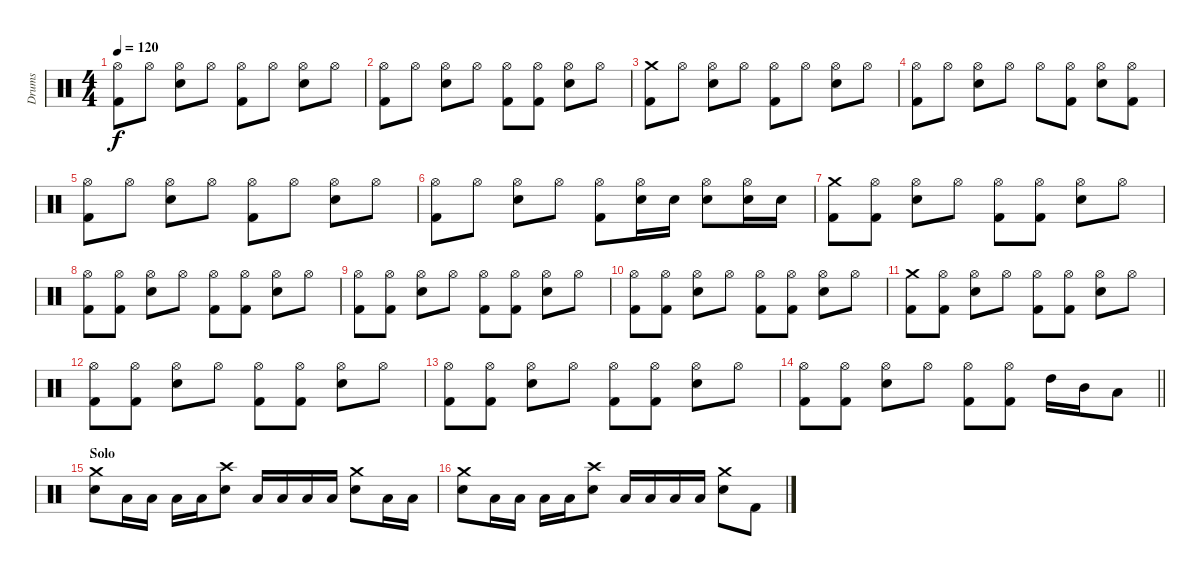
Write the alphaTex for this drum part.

\track ("Drums" "Drums") {instrument percussion}
\staff {score}
\articulation defaults
\ts (4 4)
\tempo 120
\clef neutral
\ks c
("Hi-Hat (open)" "Kick (hit) 2").8{dy f} "Hi-Hat (open)".8 ("Hi-Hat (open)" "Electric Snare (hit)").8 "Hi-Hat (open)".8 ("Hi-Hat (open)" "Kick (hit) 2").8 "Hi-Hat (open)".8 ("Hi-Hat (open)" "Electric Snare (hit)").8 "Hi-Hat (open)".8 |
("Hi-Hat (open)" "Kick (hit) 2").8 "Hi-Hat (open)".8 ("Hi-Hat (open)" "Electric Snare (hit)").8 "Hi-Hat (open)".8 ("Hi-Hat (open)" "Kick (hit) 2").8 ("Hi-Hat (open)" "Kick (hit) 2").8 ("Hi-Hat (open)" "Electric Snare (hit)").8 "Hi-Hat (open)".8 |
("Crash medium (hit)" "Kick (hit) 2").8 "Hi-Hat (open)".8 ("Hi-Hat (open)" "Electric Snare (hit)").8 "Hi-Hat (open)".8 ("Hi-Hat (open)" "Kick (hit) 2").8 "Hi-Hat (open)".8 ("Hi-Hat (open)" "Electric Snare (hit)").8 "Hi-Hat (open)".8 |
("Hi-Hat (open)" "Kick (hit) 2").8 "Hi-Hat (open)".8 ("Hi-Hat (open)" "Electric Snare (hit)").8 "Hi-Hat (open)".8 "Hi-Hat (open)".8 ("Hi-Hat (open)" "Kick (hit) 2").8 ("Hi-Hat (open)" "Electric Snare (hit)").8 ("Hi-Hat (open)" "Kick (hit) 2").8 |
("Hi-Hat (open)" "Kick (hit) 2").8 "Hi-Hat (open)".8 ("Hi-Hat (open)" "Electric Snare (hit)").8 "Hi-Hat (open)".8 ("Hi-Hat (open)" "Kick (hit) 2").8 "Hi-Hat (open)".8 ("Hi-Hat (open)" "Electric Snare (hit)").8 "Hi-Hat (open)".8 |
("Hi-Hat (open)" "Kick (hit) 2").8 "Hi-Hat (open)".8 ("Hi-Hat (open)" "Electric Snare (hit)").8 "Hi-Hat (open)".8 ("Hi-Hat (open)" "Kick (hit) 2").8 ("Hi-Hat (open)" "Electric Snare (hit)").16 "Electric Snare (hit)".16 ("Hi-Hat (open)" "Electric Snare (hit)").8 ("Hi-Hat (open)" "Electric Snare (hit)").16 "Electric Snare (hit)".16 |
("Crash medium (hit)" "Kick (hit) 2").8 ("Hi-Hat (open)" "Kick (hit) 2").8 ("Hi-Hat (open)" "Electric Snare (hit)").8 "Hi-Hat (open)".8 ("Hi-Hat (open)" "Kick (hit) 2").8 ("Hi-Hat (open)" "Kick (hit) 2").8 ("Hi-Hat (open)" "Electric Snare (hit)").8 "Hi-Hat (open)".8 |
("Hi-Hat (open)" "Kick (hit) 2").8 ("Hi-Hat (open)" "Kick (hit) 2").8 ("Hi-Hat (open)" "Electric Snare (hit)").8 "Hi-Hat (open)".8 ("Hi-Hat (open)" "Kick (hit) 2").8 ("Hi-Hat (open)" "Kick (hit) 2").8 ("Hi-Hat (open)" "Electric Snare (hit)").8 "Hi-Hat (open)".8 |
("Hi-Hat (open)" "Kick (hit) 2").8 ("Hi-Hat (open)" "Kick (hit) 2").8 ("Hi-Hat (open)" "Electric Snare (hit)").8 "Hi-Hat (open)".8 ("Hi-Hat (open)" "Kick (hit) 2").8 ("Hi-Hat (open)" "Kick (hit) 2").8 ("Hi-Hat (open)" "Electric Snare (hit)").8 "Hi-Hat (open)".8 |
("Hi-Hat (open)" "Kick (hit) 2").8 ("Hi-Hat (open)" "Kick (hit) 2").8 ("Hi-Hat (open)" "Electric Snare (hit)").8 "Hi-Hat (open)".8 ("Hi-Hat (open)" "Kick (hit) 2").8 ("Hi-Hat (open)" "Kick (hit) 2").8 ("Hi-Hat (open)" "Electric Snare (hit)").8 "Hi-Hat (open)".8 |
("Crash medium (hit)" "Kick (hit) 2").8 ("Hi-Hat (open)" "Kick (hit) 2").8 ("Hi-Hat (open)" "Electric Snare (hit)").8 "Hi-Hat (open)".8 ("Hi-Hat (open)" "Kick (hit) 2").8 ("Hi-Hat (open)" "Kick (hit) 2").8 ("Hi-Hat (open)" "Electric Snare (hit)").8 "Hi-Hat (open)".8 |
("Hi-Hat (open)" "Kick (hit) 2").8 ("Hi-Hat (open)" "Kick (hit) 2").8 ("Hi-Hat (open)" "Electric Snare (hit)").8 "Hi-Hat (open)".8 ("Hi-Hat (open)" "Kick (hit) 2").8 ("Hi-Hat (open)" "Kick (hit) 2").8 ("Hi-Hat (open)" "Electric Snare (hit)").8 "Hi-Hat (open)".8 |
("Hi-Hat (open)" "Kick (hit) 2").8 ("Hi-Hat (open)" "Kick (hit) 2").8 ("Hi-Hat (open)" "Electric Snare (hit)").8 "Hi-Hat (open)".8 ("Hi-Hat (open)" "Kick (hit) 2").8 ("Hi-Hat (open)" "Kick (hit) 2").8 ("Hi-Hat (open)" "Electric Snare (hit)").8 "Hi-Hat (open)".8 |
\barLineRight lightlight
("Hi-Hat (open)" "Kick (hit) 2").8 ("Hi-Hat (open)" "Kick (hit) 2").8 ("Hi-Hat (open)" "Electric Snare (hit)").8 "Hi-Hat (open)".8 ("Hi-Hat (open)" "Kick (hit) 2").8 ("Hi-Hat (open)" "Kick (hit) 2").8 "High Tom (hit)".16 "Mid Tom (hit)".16 "Low Tom (hit)".8 |
\section ("" "Solo")
("Crash medium (hit)" "Electric Snare (hit)").8 "Low Tom (hit)".16 "Low Tom (hit)".16 "Low Tom (hit)".16 "Low Tom (hit)".16 ("Crash high (hit)" "Electric Snare (hit)").8 "Low Tom (hit)".16 "Low Tom (hit)".16 "Low Tom (hit)".16 "Low Tom (hit)".16 ("Crash medium (hit)" "Electric Snare (hit)").8 "Low Tom (hit)".16 "Low Tom (hit)".16 |
("Crash medium (hit)" "Electric Snare (hit)").8 "Low Tom (hit)".16 "Low Tom (hit)".16 "Low Tom (hit)".16 "Low Tom (hit)".16 ("Crash high (hit)" "Electric Snare (hit)").8 "Low Tom (hit)".16 "Low Tom (hit)".16 "Low Tom (hit)".16 "Low Tom (hit)".16 ("Crash medium (hit)" "Electric Snare (hit)").8 "Kick (hit) 2".8
